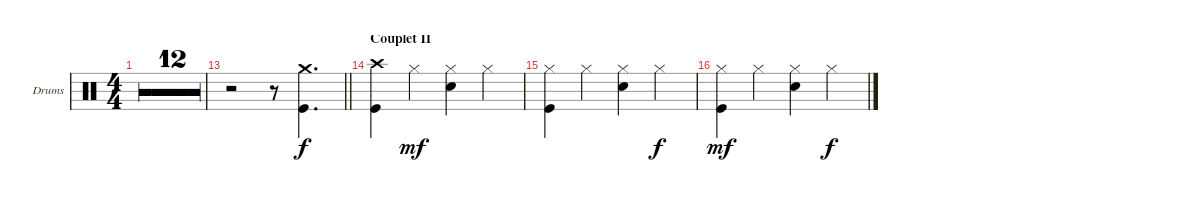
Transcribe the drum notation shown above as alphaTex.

\bracketExtendMode groupsimilarinstruments
\firstSystemTrackNameOrientation horizontal
\otherSystemsTrackNameOrientation horizontal
\track ("Nick Mason" "Drums") {multiBarRest instrument percussion}
\staff {score}
\articulation defaults
\ts (4 4)
\tempo 116
\clef neutral
\ks c
|
|
|
|
|
|
|
|
|
|
|
|
\barLineRight lightlight
r.2 r.8 ("Crash medium (hit)" "Kick (hit)").4{d} |
\section ("" "Couplet II")
("Crash high (hit)" "Kick (hit)").4 "Hi-Hat (closed)".4{dy mf} ("Hi-Hat (closed)" "Snare (hit) 2").4 "Hi-Hat (closed)".4 |
("Hi-Hat (closed)" "Kick (hit)").4 "Hi-Hat (closed)".4 ("Hi-Hat (closed)" "Snare (hit) 2").4 "Hi-Hat (closed)".4{dy f} |
("Hi-Hat (closed)" "Kick (hit)").4{dy mf} "Hi-Hat (closed)".4 ("Hi-Hat (closed)" "Snare (hit) 2").4 "Hi-Hat (closed)".4{dy f}
